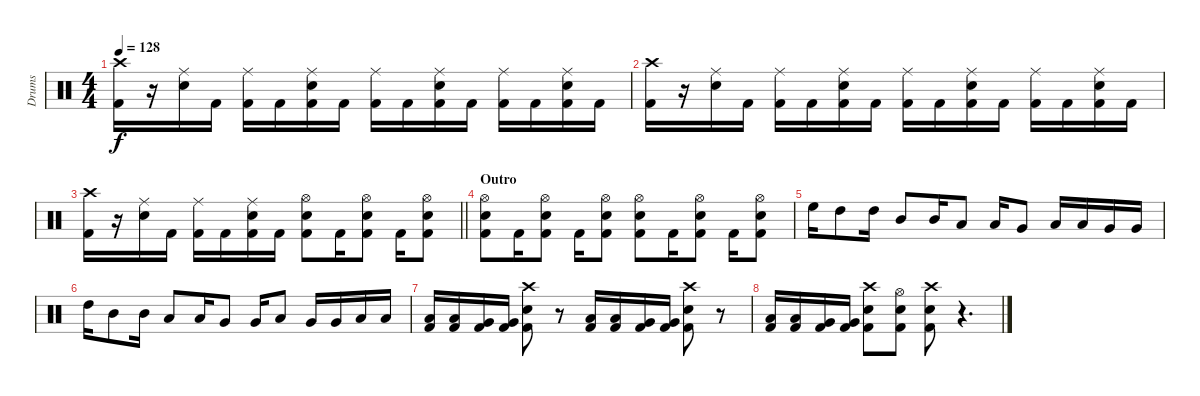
\track ("Drums" "Drums") {instrument percussion}
\staff {score}
\articulation defaults
\ts (4 4)
\tempo 128
\clef neutral
\ks c
("Crash high (hit)" "Kick (hit) 2").16{dy f} r.16 ("Ride (middle)" "Snare (hit) 2").16 "Kick (hit) 2".16 ("Ride (middle)" "Kick (hit) 2").16 "Kick (hit) 2".16 ("Ride (middle)" "Snare (hit) 2" "Kick (hit) 2").16 "Kick (hit) 2".16 ("Ride (middle)" "Kick (hit) 2").16 "Kick (hit) 2".16 ("Ride (middle)" "Snare (hit) 2" "Kick (hit) 2").16 "Kick (hit) 2".16 ("Ride (middle)" "Kick (hit) 2").16 "Kick (hit) 2".16 ("Ride (middle)" "Snare (hit) 2" "Kick (hit) 2").16 "Kick (hit) 2".16 |
("Crash high (hit)" "Kick (hit) 2").16 r.16 ("Ride (middle)" "Snare (hit) 2").16 "Kick (hit) 2".16 ("Ride (middle)" "Kick (hit) 2").16 "Kick (hit) 2".16 ("Ride (middle)" "Snare (hit) 2" "Kick (hit) 2").16 "Kick (hit) 2".16 ("Ride (middle)" "Kick (hit) 2").16 "Kick (hit) 2".16 ("Ride (middle)" "Snare (hit) 2" "Kick (hit) 2").16 "Kick (hit) 2".16 ("Ride (middle)" "Kick (hit) 2").16 "Kick (hit) 2".16 ("Ride (middle)" "Snare (hit) 2" "Kick (hit) 2").16 "Kick (hit) 2".16 |
\barLineRight lightlight
("Crash high (hit)" "Kick (hit) 2").16 r.16 ("Ride (middle)" "Snare (hit) 2").16 "Kick (hit) 2".16 ("Ride (middle)" "Kick (hit) 2").16 "Kick (hit) 2".16 ("Ride (middle)" "Snare (hit) 2" "Kick (hit) 2").16 "Kick (hit) 2".16 ("Hi-Hat (open)" "Snare (hit) 2" "Kick (hit) 2").8 "Kick (hit) 2".16 ("Hi-Hat (open)" "Snare (hit) 2" "Kick (hit) 2").8 "Kick (hit) 2".16 ("Hi-Hat (open)" "Snare (hit) 2" "Kick (hit) 2").8 |
\section ("" "Outro")
("Hi-Hat (open)" "Snare (hit) 2" "Kick (hit) 2").8 "Kick (hit) 2".16 ("Hi-Hat (open)" "Snare (hit) 2" "Kick (hit) 2").8 "Kick (hit) 2".16 ("Hi-Hat (open)" "Snare (hit) 2" "Kick (hit) 2").8 ("Hi-Hat (open)" "Snare (hit) 2" "Kick (hit) 2").8 "Kick (hit) 2".16 ("Hi-Hat (open)" "Snare (hit) 2" "Kick (hit) 2").8 "Kick (hit) 2".16 ("Hi-Hat (open)" "Snare (hit) 2" "Kick (hit) 2").8 |
"High Floor Tom (hit)".16 "High Tom (hit)".8 "High Tom (hit)".16 "Mid Tom (hit)".8 "Mid Tom (hit)".16 "Low Tom (hit)".8 "Low Tom (hit)".16 "Very Low Tom (hit)".8 "Low Tom (hit)".16 "Low Tom (hit)".16 "Very Low Tom (hit)".16 "Very Low Tom (hit)".16 |
"High Tom (hit)".16 "Mid Tom (hit)".8 "Mid Tom (hit)".16 "Low Tom (hit)".8 "Low Tom (hit)".16 "Very Low Tom (hit)".8 "Very Low Tom (hit)".16 "Low Floor Tom (hit)".8 "Very Low Tom (hit)".16 "Very Low Tom (hit)".16 "Low Floor Tom (hit)".16 "Low Floor Tom (hit)".16 |
("Low Tom (hit)" "Kick (hit) 2").16 ("Low Tom (hit)" "Kick (hit) 2").16 ("Very Low Tom (hit)" "Kick (hit) 2").16 ("Very Low Tom (hit)" "Kick (hit) 2").16 ("Crash high (hit)" "Snare (hit) 2" "Kick (hit) 2").8 r.8 ("Low Tom (hit)" "Kick (hit) 2").16 ("Low Tom (hit)" "Kick (hit) 2").16 ("Very Low Tom (hit)" "Kick (hit) 2").16 ("Very Low Tom (hit)" "Kick (hit) 2").16 ("Crash high (hit)" "Snare (hit) 2" "Kick (hit) 2").8 r.8 |
("Low Tom (hit)" "Kick (hit) 2").16 ("Low Tom (hit)" "Kick (hit) 2").16 ("Very Low Tom (hit)" "Kick (hit) 2").16 ("Very Low Tom (hit)" "Kick (hit) 2").16 ("Crash high (hit)" "Snare (hit) 2" "Kick (hit) 2").8 ("Hi-Hat (open)" "Snare (hit) 2" "Kick (hit) 2").8 ("Crash high (hit)" "Snare (hit) 2" "Kick (hit) 2").8 r.4{d}
